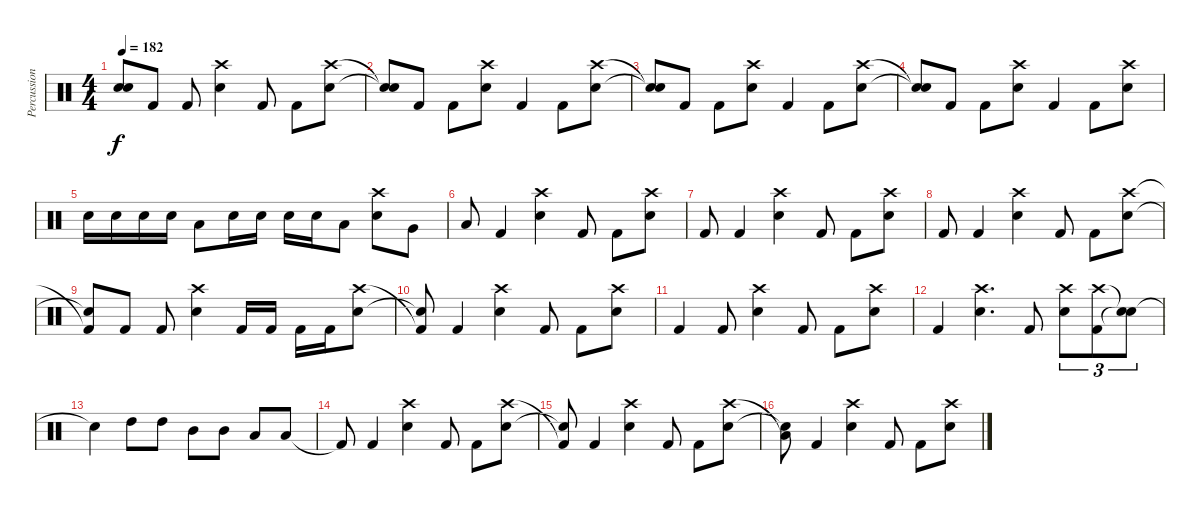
\track ("Percussion" "Percussion") {instrument percussion}
\staff {score}
\articulation defaults
\ts (4 4)
\tempo 182
\clef neutral
\ks c
("Snare (hit)"{t} "Snare (hit)"{t}).8{dy f} "Kick (hit) 2".8 "Kick (hit) 2".8 ("Crash high (hit)" "Snare (hit) 2").4 "Kick (hit) 2".8 "Kick (hit) 2".8 ("Crash high (hit)" "Snare (hit) 2").8 |
("Snare (hit)"{t} "Snare (hit)"{t}).8 "Kick (hit) 2".8 "Kick (hit) 2".8 ("Crash high (hit)" "Snare (hit) 2").8 "Kick (hit) 2".4 "Kick (hit) 2".8 ("Crash high (hit)" "Snare (hit) 2").8 |
("Snare (hit)"{t} "Snare (hit)"{t}).8 "Kick (hit) 2".8 "Kick (hit) 2".8 ("Crash high (hit)" "Snare (hit) 2").8 "Kick (hit) 2".4 "Kick (hit) 2".8 ("Crash high (hit)" "Snare (hit) 2").8 |
("Snare (hit)"{t} "Snare (hit)"{t}).8 "Kick (hit) 2".8 "Kick (hit) 2".8 ("Crash high (hit)" "Snare (hit) 2").8 "Kick (hit) 2".4 "Kick (hit) 2".8 ("Crash high (hit)" "Snare (hit) 2").8 |
"Snare (hit) 2".16 "Snare (hit) 2".16 "Snare (hit) 2".16 "Snare (hit) 2".16 "Low Floor Tom (hit)".8 "Snare (hit) 2".16 "Snare (hit) 2".16 "Snare (hit) 2".16 "Snare (hit) 2".16 "Low Floor Tom (hit)".8 ("Crash high (hit)" "Snare (hit) 2").8 "Very Low Tom (hit)".8 |
"Low Floor Tom (hit)".8 "Kick (hit) 2".4 ("Crash high (hit)" "Snare (hit) 2").4 "Kick (hit) 2".8 "Kick (hit) 2".8 ("Crash high (hit)" "Snare (hit) 2").8 |
"Kick (hit) 2".8 "Kick (hit) 2".4 ("Crash high (hit)" "Snare (hit) 2").4 "Kick (hit) 2".8 "Kick (hit) 2".8 ("Crash high (hit)" "Snare (hit) 2").8 |
"Kick (hit) 2".8 "Kick (hit) 2".4 ("Crash high (hit)" "Snare (hit) 2").4 "Kick (hit) 2".8 "Kick (hit) 2".8 ("Crash high (hit)" "Snare (hit) 2").8 |
("Kick (hit) 2"{t} "Snare (hit)"{t}).8 "Kick (hit) 2".8 "Kick (hit) 2".8 ("Crash high (hit)" "Snare (hit) 2").4 "Kick (hit) 2".16 "Kick (hit) 2".16 "Kick (hit) 2".16 "Kick (hit) 2".16 ("Crash high (hit)" "Snare (hit) 2").8 |
("Kick (hit) 2"{t} "Snare (hit)"{t}).8 "Kick (hit) 2".4 ("Crash high (hit)" "Snare (hit) 2").4 "Kick (hit) 2".8 "Kick (hit) 2".8 ("Crash high (hit)" "Snare (hit) 2").8 |
"Kick (hit) 2".4 "Kick (hit) 2".8 ("Crash high (hit)" "Snare (hit) 2").4 "Kick (hit) 2".8 "Kick (hit) 2".8 ("Crash high (hit)" "Snare (hit) 2").8 |
"Kick (hit) 2".4 ("Crash high (hit)" "Snare (hit) 2").4{d} "Kick (hit) 2".8 ("Crash high (hit)" "Snare (hit) 2").8{tu (3 2)} ("Kick (hit) 2" "Crash high (hit)").8{tu (3 2)} ("Snare (hit)"{t} "Snare (hit)"{t}).8{tu (3 2)} |
"Snare (hit)"{t}.4 "High Tom (hit)".8 "High Tom (hit)".8 "Mid Tom (hit)".8 "Mid Tom (hit)".8 "Low Tom (hit)".8 "Low Tom (hit)".8 |
"Kick (hit) 2"{t}.8 "Kick (hit) 2".4 ("Crash high (hit)" "Snare (hit) 2").4 "Kick (hit) 2".8 "Kick (hit) 2".8 ("Crash high (hit)" "Snare (hit) 2").8 |
("Kick (hit) 2"{t} "Snare (hit)"{t}).8 "Kick (hit) 2".4 ("Crash high (hit)" "Snare (hit) 2").4 "Kick (hit) 2".8 "Kick (hit) 2".8 ("Crash high (hit)" "Snare (hit) 2").8 |
("Low Floor Tom (hit)"{t} "Snare (hit)"{t}).8 "Kick (hit) 2".4 ("Crash high (hit)" "Snare (hit) 2").4 "Kick (hit) 2".8 "Kick (hit) 2".8 ("Crash high (hit)" "Snare (hit) 2").8
